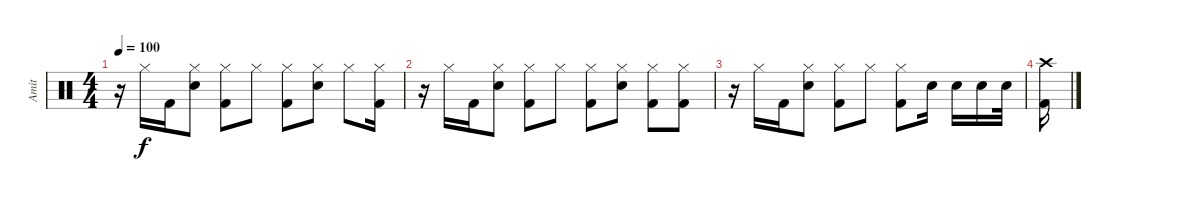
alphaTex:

\track ("Amit" "Amit") {instrument percussion}
\staff {score}
\articulation defaults
\ts (4 4)
\tempo 100
\clef neutral
\ks c
r.16{dy f} "Hi-Hat (closed)".16 "Kick (hit) 2".16 ("Hi-Hat (closed)" "Snare (hit) 2").8 ("Hi-Hat (closed)" "Kick (hit) 2").8 "Hi-Hat (closed)".8 ("Hi-Hat (closed)" "Kick (hit) 2").8 ("Hi-Hat (closed)" "Snare (hit) 2").8 "Hi-Hat (closed)".8 ("Hi-Hat (closed)" "Kick (hit) 2").16 |
r.16 "Hi-Hat (closed)".16 "Kick (hit) 2".16 ("Hi-Hat (closed)" "Snare (hit) 2").8 ("Hi-Hat (closed)" "Kick (hit) 2").8 "Hi-Hat (closed)".8 ("Hi-Hat (closed)" "Kick (hit) 2").8 ("Hi-Hat (closed)" "Snare (hit) 2").8 ("Hi-Hat (closed)" "Kick (hit) 2").8 ("Hi-Hat (closed)" "Kick (hit) 2").8 |
r.16 "Hi-Hat (closed)".16 "Kick (hit) 2".16 ("Hi-Hat (closed)" "Snare (hit) 2").8 ("Hi-Hat (closed)" "Kick (hit) 2").8 "Hi-Hat (closed)".8 ("Hi-Hat (closed)" "Kick (hit) 2").8 "Snare (hit) 2".16 "Snare (hit) 2".16 "Snare (hit) 2".16 "Snare (hit) 2".32 |
("Kick (hit) 2" "Crash high (hit)").16
